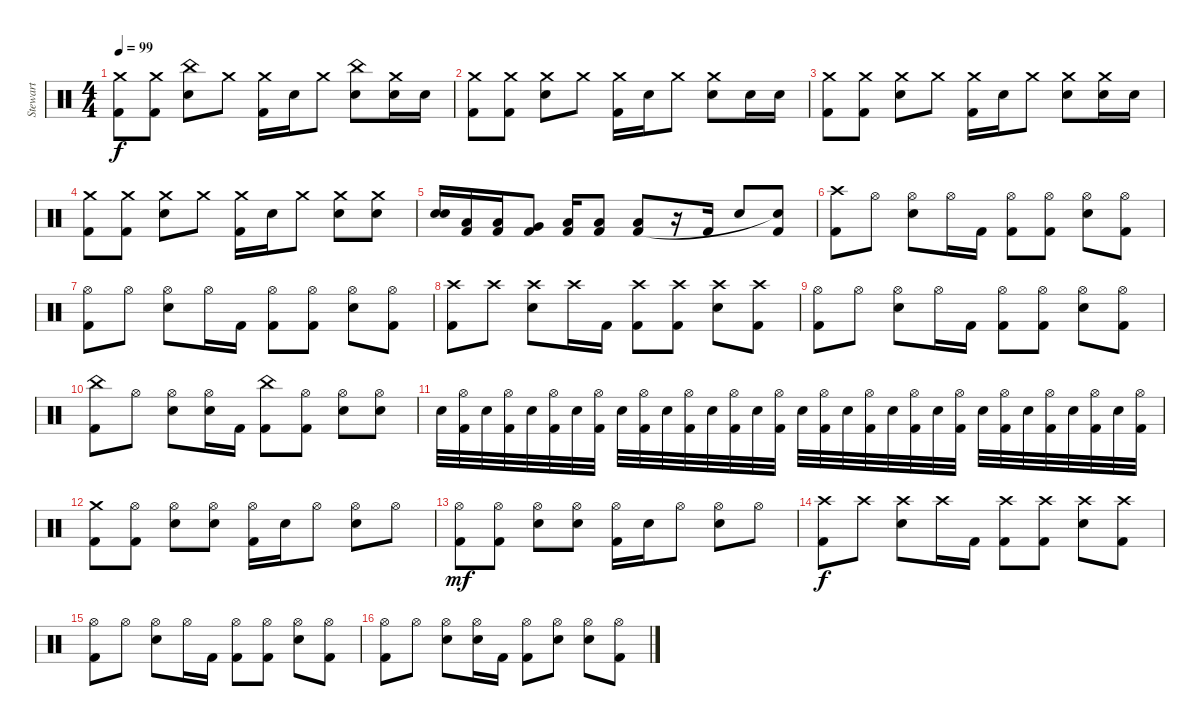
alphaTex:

\track ("Stewart" "Stewart") {instrument percussion}
\staff {score}
\articulation defaults
\ts (4 4)
\tempo 99
\clef neutral
\ks c
("Crash medium (hit)" "Kick (hit) 2").8{dy f} ("Crash medium (hit)" "Kick (hit) 2").8 ("China (hit)" "Snare (hit) 2").8 "Crash medium (hit)".8 ("Crash medium (hit)" "Kick (hit) 2").16 "Snare (hit) 2".16 "Crash medium (hit)".8 ("China (hit)" "Snare (hit) 2").8 ("Crash medium (hit)" "Snare (hit) 2").16 "Snare (hit) 2".16 |
("Crash medium (hit)" "Kick (hit) 2").8 ("Crash medium (hit)" "Kick (hit) 2").8 ("Crash medium (hit)" "Snare (hit) 2").8 "Crash medium (hit)".8 ("Crash medium (hit)" "Kick (hit) 2").16 "Snare (hit) 2".16 "Crash medium (hit)".8 ("Crash medium (hit)" "Snare (hit) 2").8 "Snare (hit) 2".16 "Snare (hit) 2".16 |
("Crash medium (hit)" "Kick (hit) 2").8 ("Crash medium (hit)" "Kick (hit) 2").8 ("Crash medium (hit)" "Snare (hit) 2").8 "Crash medium (hit)".8 ("Crash medium (hit)" "Kick (hit) 2").16 "Snare (hit) 2".16 "Crash medium (hit)".8 ("Crash medium (hit)" "Snare (hit) 2").8 ("Crash medium (hit)" "Snare (hit) 2").16 "Snare (hit) 2".16 |
("Crash medium (hit)" "Kick (hit) 2").8 ("Crash medium (hit)" "Kick (hit) 2").8 ("Crash medium (hit)" "Snare (hit) 2").8 "Crash medium (hit)".8 ("Crash medium (hit)" "Kick (hit) 2").16 "Snare (hit) 2".16 "Crash medium (hit)".8 ("Crash medium (hit)" "Snare (hit) 2").8 ("Crash medium (hit)" "Snare (hit) 2").8 |
("Electric Snare (hit)" "Electric Snare (hit)").16 ("Low Tom (hit)" "Kick (hit) 2").16 ("Low Tom (hit)" "Kick (hit) 2").16 ("Very Low Tom (hit)" "Kick (hit) 2").8 ("Low Tom (hit)" "Kick (hit) 2").16 ("Low Tom (hit)" "Kick (hit) 2").8 ("Low Tom (hit)" "Kick (hit) 2").8 r.16 "Kick (hit) 2".16 "Electric Snare (hit)".8 ("Kick (hit) 2" "Snare (hit)"{t}).8 |
("Crash high (hit)" "Kick (hit) 2").8 "Hi-Hat (open)".8 ("Hi-Hat (open)" "Snare (hit) 2").8 "Hi-Hat (open)".16 "Kick (hit) 2".16 ("Hi-Hat (open)" "Kick (hit) 2").8 ("Hi-Hat (open)" "Kick (hit) 2").8 ("Hi-Hat (open)" "Snare (hit) 2").8 ("Hi-Hat (open)" "Kick (hit) 2").8 |
("Hi-Hat (open)" "Kick (hit) 2").8 "Hi-Hat (open)".8 ("Hi-Hat (open)" "Snare (hit) 2").8 "Hi-Hat (open)".16 "Kick (hit) 2".16 ("Hi-Hat (open)" "Kick (hit) 2").8 ("Hi-Hat (open)" "Kick (hit) 2").8 ("Hi-Hat (open)" "Snare (hit) 2").8 ("Hi-Hat (open)" "Kick (hit) 2").8 |
("Crash high (hit)" "Kick (hit) 2").8 "Crash high (hit)".8 ("Crash high (hit)" "Snare (hit) 2").8 "Crash high (hit)".16 "Kick (hit) 2".16 ("Crash high (hit)" "Kick (hit) 2").8 ("Crash high (hit)" "Kick (hit) 2").8 ("Crash high (hit)" "Snare (hit) 2").8 ("Crash high (hit)" "Kick (hit) 2").8 |
("Hi-Hat (open)" "Kick (hit) 2").8 "Hi-Hat (open)".8 ("Hi-Hat (open)" "Snare (hit) 2").8 "Hi-Hat (open)".16 "Kick (hit) 2".16 ("Hi-Hat (open)" "Kick (hit) 2").8 ("Hi-Hat (open)" "Kick (hit) 2").8 ("Hi-Hat (open)" "Snare (hit) 2").8 ("Hi-Hat (open)" "Kick (hit) 2").8 |
("China (hit)" "Kick (hit) 2").8 "Hi-Hat (open)".8 ("Hi-Hat (open)" "Snare (hit) 2").8 ("Hi-Hat (open)" "Snare (hit) 2").16 "Kick (hit) 2".16 ("China (hit)" "Kick (hit) 2").8 ("Hi-Hat (open)" "Kick (hit) 2").8 ("Hi-Hat (open)" "Snare (hit) 2").8 ("Hi-Hat (open)" "Snare (hit) 2").8 |
"Snare (hit) 2".32 ("Hi-Hat (open)" "Kick (hit) 2").32 "Snare (hit) 2".32 ("Hi-Hat (open)" "Kick (hit) 2").32 "Snare (hit) 2".32 ("Hi-Hat (open)" "Kick (hit) 2").32 "Snare (hit) 2".32 ("Hi-Hat (open)" "Kick (hit) 2").32 "Snare (hit) 2".32 ("Hi-Hat (open)" "Kick (hit) 2").32 "Snare (hit) 2".32 ("Hi-Hat (open)" "Kick (hit) 2").32 "Snare (hit) 2".32 ("Hi-Hat (open)" "Kick (hit) 2").32 "Snare (hit) 2".32 ("Hi-Hat (open)" "Kick (hit) 2").32 "Snare (hit) 2".32 ("Hi-Hat (open)" "Kick (hit) 2").32 "Snare (hit) 2".32 ("Hi-Hat (open)" "Kick (hit) 2").32 "Snare (hit) 2".32 ("Hi-Hat (open)" "Kick (hit) 2").32 "Snare (hit) 2".32 ("Hi-Hat (open)" "Kick (hit) 2").32 "Snare (hit) 2".32 ("Hi-Hat (open)" "Kick (hit) 2").32 "Snare (hit) 2".32 ("Hi-Hat (open)" "Kick (hit) 2").32 "Snare (hit) 2".32 ("Hi-Hat (open)" "Kick (hit) 2").32 "Snare (hit) 2".32 ("Hi-Hat (open)" "Kick (hit) 2").32 |
("Crash medium (hit)" "Kick (hit) 2").8 ("Hi-Hat (open)" "Kick (hit) 2").8 ("Hi-Hat (open)" "Snare (hit) 2").8 ("Hi-Hat (open)" "Snare (hit) 2").8 ("Hi-Hat (open)" "Kick (hit) 2").16 "Snare (hit) 2".16 "Hi-Hat (open)".8 ("Hi-Hat (open)" "Snare (hit) 2").8 "Hi-Hat (open)".8 |
("Hi-Hat (open)" "Kick (hit) 2").8{dy mf} ("Hi-Hat (open)" "Kick (hit) 2").8 ("Hi-Hat (open)" "Snare (hit) 2").8 ("Hi-Hat (open)" "Snare (hit) 2").8 ("Hi-Hat (open)" "Kick (hit) 2").16 "Snare (hit) 2".16 "Hi-Hat (open)".8 ("Hi-Hat (open)" "Snare (hit) 2").8 "Hi-Hat (open)".8 |
("Crash high (hit)" "Kick (hit) 2").8{dy f} "Crash high (hit)".8 ("Crash high (hit)" "Snare (hit) 2").8 "Crash high (hit)".16 "Kick (hit) 2".16 ("Crash high (hit)" "Kick (hit) 2").8 ("Crash high (hit)" "Kick (hit) 2").8 ("Crash high (hit)" "Snare (hit) 2").8 ("Crash high (hit)" "Kick (hit) 2").8 |
("Hi-Hat (open)" "Kick (hit) 2").8 "Hi-Hat (open)".8 ("Hi-Hat (open)" "Snare (hit) 2").8 "Hi-Hat (open)".16 "Kick (hit) 2".16 ("Hi-Hat (open)" "Kick (hit) 2").8 ("Hi-Hat (open)" "Kick (hit) 2").8 ("Hi-Hat (open)" "Snare (hit) 2").8 ("Hi-Hat (open)" "Kick (hit) 2").8 |
("Hi-Hat (open)" "Kick (hit) 2").8 "Hi-Hat (open)".8 ("Hi-Hat (open)" "Snare (hit) 2").8 ("Hi-Hat (open)" "Snare (hit) 2").16 "Kick (hit) 2".16 ("Hi-Hat (open)" "Kick (hit) 2").8 ("Hi-Hat (open)" "Snare (hit) 2").8 ("Hi-Hat (open)" "Snare (hit) 2").8 ("Hi-Hat (open)" "Kick (hit) 2").8
